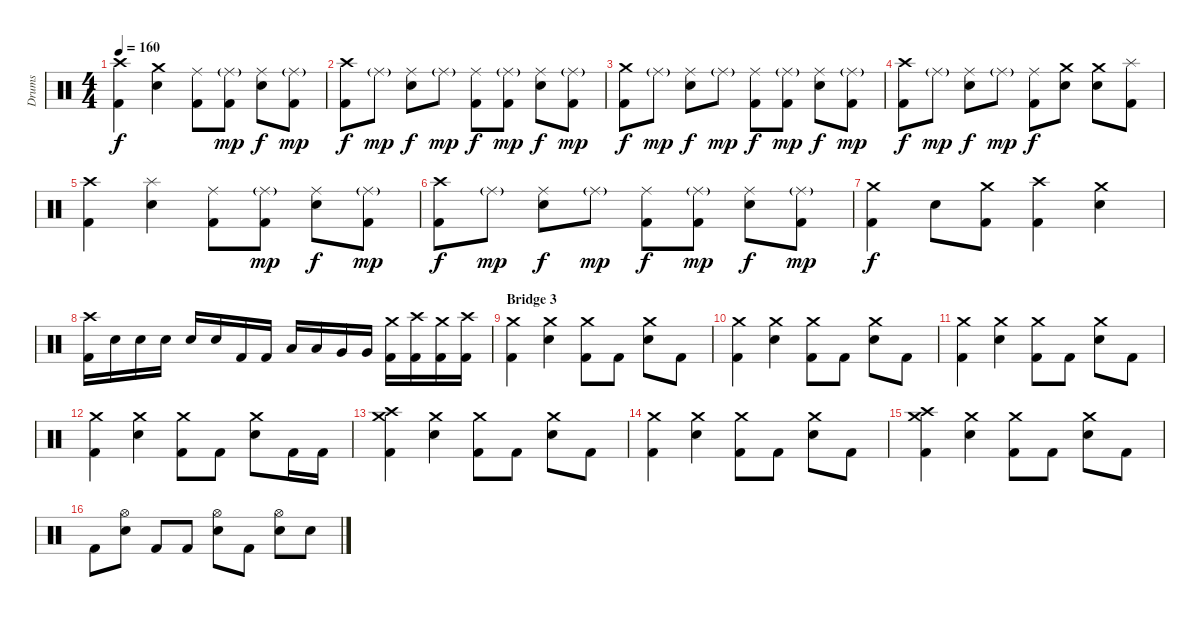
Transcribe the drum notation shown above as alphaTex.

\track ("Drums" "Drums") {instrument percussion}
\staff {score}
\articulation defaults
\ts (4 4)
\tempo 160
\clef neutral
\ks c
("Crash high (hit)" "Kick (hit) 2").4{dy f} ("Crash medium (hit)" "Snare (hit) 2").4 ("Ride (middle)" "Kick (hit) 2").8 ("Ride (middle)"{g} "Kick (hit) 2").8{dy mp} ("Ride (middle)" "Snare (hit) 2").8{dy f} ("Ride (middle)"{g} "Kick (hit) 2").8{dy mp} |
("Crash high (hit)" "Kick (hit) 2").8{dy f} "Ride (middle)"{g}.8{dy mp} ("Ride (middle)" "Snare (hit) 2").8{dy f} "Ride (middle)"{g}.8{dy mp} ("Ride (middle)" "Kick (hit) 2").8{dy f} ("Ride (middle)"{g} "Kick (hit) 2").8{dy mp} ("Ride (middle)" "Snare (hit) 2").8{dy f} ("Ride (middle)"{g} "Kick (hit) 2").8{dy mp} |
("Crash medium (hit)" "Kick (hit) 2").8{dy f} "Ride (middle)"{g}.8{dy mp} ("Ride (middle)" "Snare (hit) 2").8{dy f} "Ride (middle)"{g}.8{dy mp} ("Ride (middle)" "Kick (hit) 2").8{dy f} ("Ride (middle)"{g} "Kick (hit) 2").8{dy mp} ("Ride (middle)" "Snare (hit) 2").8{dy f} ("Ride (middle)"{g} "Kick (hit) 2").8{dy mp} |
("Crash high (hit)" "Kick (hit) 2").8{dy f} "Ride (middle)"{g}.8{dy mp} ("Ride (middle)" "Snare (hit) 2").8{dy f} "Ride (middle)"{g}.8{dy mp} ("Ride (middle)" "Kick (hit) 2").8{dy f} ("Crash medium (hit)" "Snare (hit) 2").8 ("Crash medium (hit)" "Snare (hit) 2").8 ("Splash (hit)" "Kick (hit) 2").8 |
("Crash high (hit)" "Kick (hit) 2").4 ("Splash (hit)" "Snare (hit) 2").4 ("Ride (middle)" "Kick (hit) 2").8 ("Ride (middle)"{g} "Kick (hit) 2").8{dy mp} ("Ride (middle)" "Snare (hit) 2").8{dy f} ("Ride (middle)"{g} "Kick (hit) 2").8{dy mp} |
("Crash high (hit)" "Kick (hit) 2").8{dy f} "Ride (middle)"{g}.8{dy mp} ("Ride (middle)" "Snare (hit) 2").8{dy f} "Ride (middle)"{g}.8{dy mp} ("Ride (middle)" "Kick (hit) 2").8{dy f} ("Ride (middle)"{g} "Kick (hit) 2").8{dy mp} ("Ride (middle)" "Snare (hit) 2").8{dy f} ("Ride (middle)"{g} "Kick (hit) 2").8{dy mp} |
("Crash medium (hit)" "Kick (hit) 2").4{dy f} "Snare (hit) 2".8 ("Crash medium (hit)" "Kick (hit) 2").8 ("Crash high (hit)" "Kick (hit) 2").4 ("Crash medium (hit)" "Snare (hit) 2").4 |
("Crash high (hit)" "Kick (hit) 2").16 "Snare (hit) 2".16 "Snare (hit) 2".16 "Snare (hit) 2".16 "Snare (hit) 2".16 "Snare (hit) 2".16 "Kick (hit) 2".16 "Kick (hit) 2".16 "Low Tom (hit)".16 "Low Tom (hit)".16 "Very Low Tom (hit)".16 "Very Low Tom (hit)".16 ("Crash medium (hit)" "Kick (hit) 2").16 ("Crash high (hit)" "Kick (hit) 2").16 ("Crash medium (hit)" "Kick (hit) 2").16 ("Crash high (hit)" "Kick (hit) 2").16 |
\section ("" "Bridge 3")
("Crash medium (hit)" "Kick (hit) 2").4 ("Crash medium (hit)" "Snare (hit) 2").4 ("Crash medium (hit)" "Kick (hit) 2").8 "Kick (hit) 2".8 ("Crash medium (hit)" "Snare (hit) 2").8 "Kick (hit) 2".8 |
("Crash medium (hit)" "Kick (hit) 2").4 ("Crash medium (hit)" "Snare (hit) 2").4 ("Crash medium (hit)" "Kick (hit) 2").8 "Kick (hit) 2".8 ("Crash medium (hit)" "Snare (hit) 2").8 "Kick (hit) 2".8 |
("Crash medium (hit)" "Kick (hit) 2").4 ("Crash medium (hit)" "Snare (hit) 2").4 ("Crash medium (hit)" "Kick (hit) 2").8 "Kick (hit) 2".8 ("Crash medium (hit)" "Snare (hit) 2").8 "Kick (hit) 2".8 |
("Crash medium (hit)" "Kick (hit) 2").4 ("Crash medium (hit)" "Snare (hit) 2").4 ("Crash medium (hit)" "Kick (hit) 2").8 "Kick (hit) 2".8 ("Crash medium (hit)" "Snare (hit) 2").8 "Kick (hit) 2".16 "Kick (hit) 2".16 |
("Crash medium (hit)" "Crash high (hit)" "Kick (hit) 2").4 ("Crash medium (hit)" "Snare (hit) 2").4 ("Crash medium (hit)" "Kick (hit) 2").8 "Kick (hit) 2".8 ("Crash medium (hit)" "Snare (hit) 2").8 "Kick (hit) 2".8 |
("Crash medium (hit)" "Kick (hit) 2").4 ("Crash medium (hit)" "Snare (hit) 2").4 ("Crash medium (hit)" "Kick (hit) 2").8 "Kick (hit) 2".8 ("Crash medium (hit)" "Snare (hit) 2").8 "Kick (hit) 2".8 |
("Crash medium (hit)" "Crash high (hit)" "Kick (hit) 2").4 ("Crash medium (hit)" "Snare (hit) 2").4 ("Crash medium (hit)" "Kick (hit) 2").8 "Kick (hit) 2".8 ("Crash medium (hit)" "Snare (hit) 2").8 "Kick (hit) 2".8 |
"Kick (hit) 2".8 ("Hi-Hat (open)" "Snare (hit) 2").8 "Kick (hit) 2".8 "Kick (hit) 2".8 ("Hi-Hat (open)" "Snare (hit) 2").8 "Kick (hit) 2".8 ("Hi-Hat (open)" "Snare (hit) 2").8 "Snare (hit) 2".8
